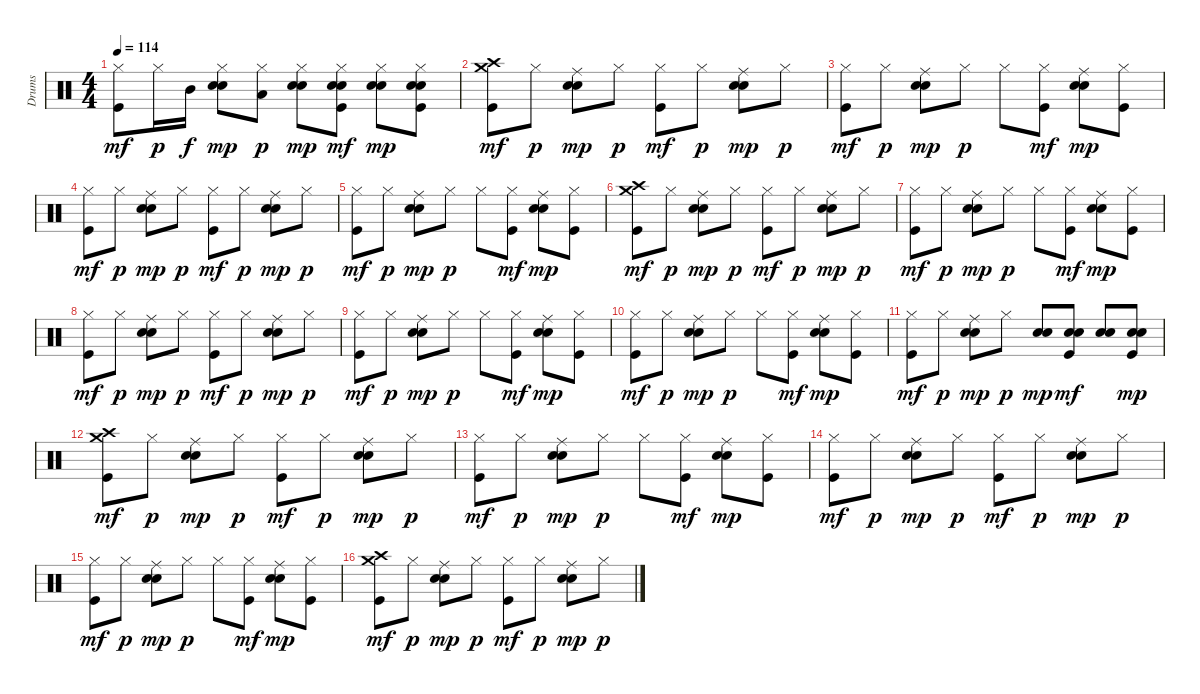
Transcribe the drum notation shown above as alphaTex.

\track ("Drums" "Drums") {instrument percussion}
\staff {score}
\articulation defaults
\ts (4 4)
\tempo 114
\clef neutral
\ks c
("Hi-Hat (closed)" "Kick (hit)").8{dy mf} "Hi-Hat (closed)".16{dy p} "Mid Tom (hit)".16{dy f} ("Hi-Hat (closed)" "Snare (hit) 2" "Electric Snare (hit)").8{dy mp} ("Hi-Hat (closed)" "Low Tom (hit)").8{dy p} ("Hi-Hat (closed)" "Snare (hit) 2" "Electric Snare (hit)").8{dy mp} ("Hi-Hat (closed)" "Snare (hit) 2" "Electric Snare (hit)" "Kick (hit)").8{dy mf} ("Hi-Hat (closed)" "Snare (hit) 2" "Electric Snare (hit)").8{dy mp} ("Hi-Hat (closed)" "Snare (hit) 2" "Electric Snare (hit)" "Kick (hit)").8 |
("Crash medium (hit)" "Crash high (hit)" "Kick (hit)").8{dy mf} "Hi-Hat (closed)".8{dy p} ("Ride (middle)" "Snare (hit) 2" "Electric Snare (hit)").8{dy mp} "Hi-Hat (closed)".8{dy p} ("Hi-Hat (closed)" "Kick (hit)").8{dy mf} "Hi-Hat (closed)".8{dy p} ("Ride (middle)" "Snare (hit) 2" "Electric Snare (hit)").8{dy mp} "Hi-Hat (closed)".8{dy p} |
("Hi-Hat (closed)" "Kick (hit)").8{dy mf} "Hi-Hat (closed)".8{dy p} ("Ride (middle)" "Snare (hit) 2" "Electric Snare (hit)").8{dy mp} "Hi-Hat (closed)".8{dy p} "Hi-Hat (closed)".8 ("Hi-Hat (closed)" "Kick (hit)").8{dy mf} ("Ride (middle)" "Snare (hit) 2" "Electric Snare (hit)").8{dy mp} ("Hi-Hat (closed)" "Kick (hit)").8 |
("Hi-Hat (closed)" "Kick (hit)").8{dy mf} "Hi-Hat (closed)".8{dy p} ("Ride (middle)" "Snare (hit) 2" "Electric Snare (hit)").8{dy mp} "Hi-Hat (closed)".8{dy p} ("Hi-Hat (closed)" "Kick (hit)").8{dy mf} "Hi-Hat (closed)".8{dy p} ("Ride (middle)" "Snare (hit) 2" "Electric Snare (hit)").8{dy mp} "Hi-Hat (closed)".8{dy p} |
("Hi-Hat (closed)" "Kick (hit)").8{dy mf} "Hi-Hat (closed)".8{dy p} ("Ride (middle)" "Snare (hit) 2" "Electric Snare (hit)").8{dy mp} "Hi-Hat (closed)".8{dy p} "Hi-Hat (closed)".8 ("Hi-Hat (closed)" "Kick (hit)").8{dy mf} ("Ride (middle)" "Snare (hit) 2" "Electric Snare (hit)").8{dy mp} ("Hi-Hat (closed)" "Kick (hit)").8 |
("Crash medium (hit)" "Crash high (hit)" "Kick (hit)").8{dy mf} "Hi-Hat (closed)".8{dy p} ("Ride (middle)" "Snare (hit) 2" "Electric Snare (hit)").8{dy mp} "Hi-Hat (closed)".8{dy p} ("Hi-Hat (closed)" "Kick (hit)").8{dy mf} "Hi-Hat (closed)".8{dy p} ("Ride (middle)" "Snare (hit) 2" "Electric Snare (hit)").8{dy mp} "Hi-Hat (closed)".8{dy p} |
("Hi-Hat (closed)" "Kick (hit)").8{dy mf} "Hi-Hat (closed)".8{dy p} ("Ride (middle)" "Snare (hit) 2" "Electric Snare (hit)").8{dy mp} "Hi-Hat (closed)".8{dy p} "Hi-Hat (closed)".8 ("Hi-Hat (closed)" "Kick (hit)").8{dy mf} ("Ride (middle)" "Snare (hit) 2" "Electric Snare (hit)").8{dy mp} ("Hi-Hat (closed)" "Kick (hit)").8 |
("Hi-Hat (closed)" "Kick (hit)").8{dy mf} "Hi-Hat (closed)".8{dy p} ("Ride (middle)" "Snare (hit) 2" "Electric Snare (hit)").8{dy mp} "Hi-Hat (closed)".8{dy p} ("Hi-Hat (closed)" "Kick (hit)").8{dy mf} "Hi-Hat (closed)".8{dy p} ("Ride (middle)" "Snare (hit) 2" "Electric Snare (hit)").8{dy mp} "Hi-Hat (closed)".8{dy p} |
("Hi-Hat (closed)" "Kick (hit)").8{dy mf} "Hi-Hat (closed)".8{dy p} ("Ride (middle)" "Snare (hit) 2" "Electric Snare (hit)").8{dy mp} "Hi-Hat (closed)".8{dy p} "Hi-Hat (closed)".8 ("Hi-Hat (closed)" "Kick (hit)").8{dy mf} ("Ride (middle)" "Snare (hit) 2" "Electric Snare (hit)").8{dy mp} ("Hi-Hat (closed)" "Kick (hit)").8 |
("Hi-Hat (closed)" "Kick (hit)").8{dy mf} "Hi-Hat (closed)".8{dy p} ("Ride (middle)" "Snare (hit) 2" "Electric Snare (hit)").8{dy mp} "Hi-Hat (closed)".8{dy p} "Hi-Hat (closed)".8 ("Hi-Hat (closed)" "Kick (hit)").8{dy mf} ("Ride (middle)" "Snare (hit) 2" "Electric Snare (hit)").8{dy mp} ("Hi-Hat (closed)" "Kick (hit)").8 |
("Hi-Hat (closed)" "Kick (hit)").8{dy mf} "Hi-Hat (closed)".8{dy p} ("Ride (middle)" "Snare (hit) 2" "Electric Snare (hit)").8{dy mp} "Hi-Hat (closed)".8{dy p} ("Snare (hit) 2" "Electric Snare (hit)").8{dy mp} ("Snare (hit) 2" "Electric Snare (hit)" "Kick (hit)").8{dy mf} ("Snare (hit) 2" "Electric Snare (hit)").8 ("Snare (hit) 2" "Electric Snare (hit)" "Kick (hit)").8{dy mp} |
("Crash medium (hit)" "Crash high (hit)" "Kick (hit)").8{dy mf} "Hi-Hat (closed)".8{dy p} ("Ride (middle)" "Snare (hit) 2" "Electric Snare (hit)").8{dy mp} "Hi-Hat (closed)".8{dy p} ("Hi-Hat (closed)" "Kick (hit)").8{dy mf} "Hi-Hat (closed)".8{dy p} ("Ride (middle)" "Snare (hit) 2" "Electric Snare (hit)").8{dy mp} "Hi-Hat (closed)".8{dy p} |
("Hi-Hat (closed)" "Kick (hit)").8{dy mf} "Hi-Hat (closed)".8{dy p} ("Ride (middle)" "Snare (hit) 2" "Electric Snare (hit)").8{dy mp} "Hi-Hat (closed)".8{dy p} "Hi-Hat (closed)".8 ("Hi-Hat (closed)" "Kick (hit)").8{dy mf} ("Ride (middle)" "Snare (hit) 2" "Electric Snare (hit)").8{dy mp} ("Hi-Hat (closed)" "Kick (hit)").8 |
("Hi-Hat (closed)" "Kick (hit)").8{dy mf} "Hi-Hat (closed)".8{dy p} ("Ride (middle)" "Snare (hit) 2" "Electric Snare (hit)").8{dy mp} "Hi-Hat (closed)".8{dy p} ("Hi-Hat (closed)" "Kick (hit)").8{dy mf} "Hi-Hat (closed)".8{dy p} ("Ride (middle)" "Snare (hit) 2" "Electric Snare (hit)").8{dy mp} "Hi-Hat (closed)".8{dy p} |
("Hi-Hat (closed)" "Kick (hit)").8{dy mf} "Hi-Hat (closed)".8{dy p} ("Ride (middle)" "Snare (hit) 2" "Electric Snare (hit)").8{dy mp} "Hi-Hat (closed)".8{dy p} "Hi-Hat (closed)".8 ("Hi-Hat (closed)" "Kick (hit)").8{dy mf} ("Ride (middle)" "Snare (hit) 2" "Electric Snare (hit)").8{dy mp} ("Hi-Hat (closed)" "Kick (hit)").8 |
("Crash medium (hit)" "Crash high (hit)" "Kick (hit)").8{dy mf} "Hi-Hat (closed)".8{dy p} ("Ride (middle)" "Snare (hit) 2" "Electric Snare (hit)").8{dy mp} "Hi-Hat (closed)".8{dy p} ("Hi-Hat (closed)" "Kick (hit)").8{dy mf} "Hi-Hat (closed)".8{dy p} ("Ride (middle)" "Snare (hit) 2" "Electric Snare (hit)").8{dy mp} "Hi-Hat (closed)".8{dy p}
